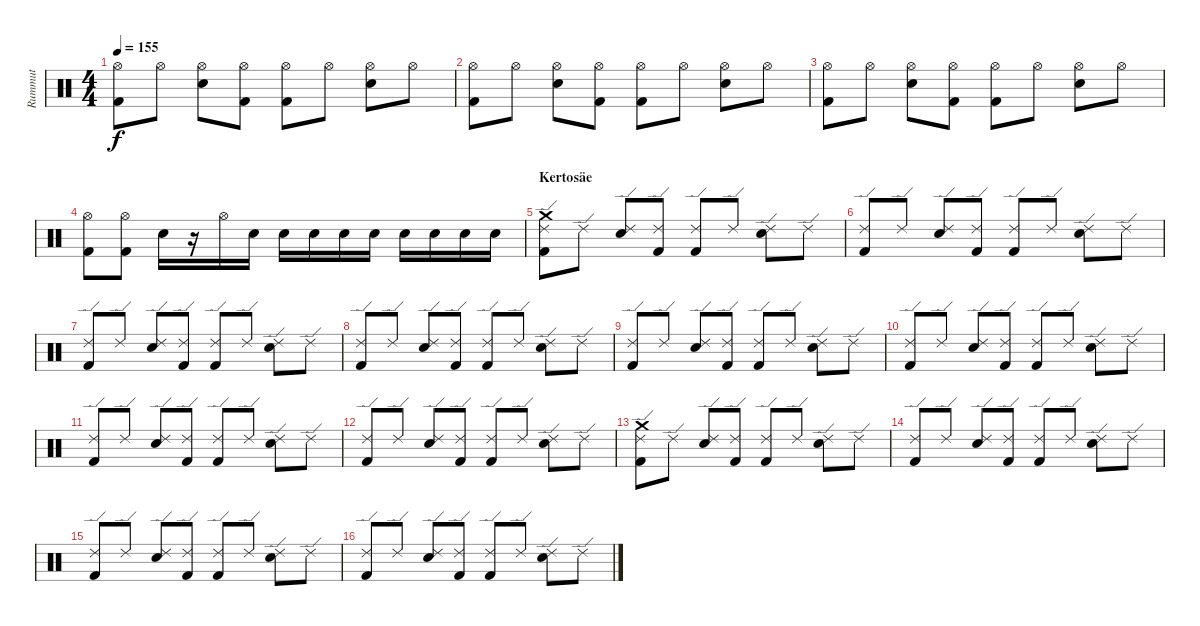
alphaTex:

\track ("Rummut" "Rummut") {instrument percussion}
\staff {score}
\articulation defaults
\ts (4 4)
\tempo 155
\clef neutral
\ks c
("Kick (hit) 2" "Hi-Hat (open)").8{dy f} "Hi-Hat (open)".8 ("Electric Snare (hit)" "Hi-Hat (open)").8 ("Kick (hit) 2" "Hi-Hat (open)").8 ("Kick (hit) 2" "Hi-Hat (open)").8 "Hi-Hat (open)".8 ("Electric Snare (hit)" "Hi-Hat (open)").8 "Hi-Hat (open)".8 |
("Kick (hit) 2" "Hi-Hat (open)").8 "Hi-Hat (open)".8 ("Electric Snare (hit)" "Hi-Hat (open)").8 ("Kick (hit) 2" "Hi-Hat (open)").8 ("Kick (hit) 2" "Hi-Hat (open)").8 "Hi-Hat (open)".8 ("Electric Snare (hit)" "Hi-Hat (open)").8 "Hi-Hat (open)".8 |
("Kick (hit) 2" "Hi-Hat (open)").8 "Hi-Hat (open)".8 ("Electric Snare (hit)" "Hi-Hat (open)").8 ("Kick (hit) 2" "Hi-Hat (open)").8 ("Kick (hit) 2" "Hi-Hat (open)").8 "Hi-Hat (open)".8 ("Electric Snare (hit)" "Hi-Hat (open)").8 "Hi-Hat (open)".8 |
("Kick (hit) 2" "Hi-Hat (open)").8 ("Kick (hit) 2" "Hi-Hat (open)").8 "Electric Snare (hit)".16 r.16 "Hi-Hat (open)".16 "Electric Snare (hit)".16 "Electric Snare (hit)".16 "Electric Snare (hit)".16 "Electric Snare (hit)".16 "Electric Snare (hit)".16 "Electric Snare (hit)".16 "Electric Snare (hit)".16 "Electric Snare (hit)".16 "Electric Snare (hit)".16 |
\section ("" "Kertosäe")
("Kick (hit) 2" "Ride (edge) 2" "Crash medium (hit)").8 "Ride (edge) 2".8 ("Electric Snare (hit)" "Ride (edge) 2").8 ("Kick (hit) 2" "Ride (edge) 2").8 ("Kick (hit) 2" "Ride (edge) 2").8 "Ride (edge) 2".8 ("Electric Snare (hit)" "Ride (edge) 2").8 "Ride (edge) 2".8 |
("Kick (hit) 2" "Ride (edge) 2").8 "Ride (edge) 2".8 ("Electric Snare (hit)" "Ride (edge) 2").8 ("Kick (hit) 2" "Ride (edge) 2").8 ("Kick (hit) 2" "Ride (edge) 2").8 "Ride (edge) 2".8 ("Electric Snare (hit)" "Ride (edge) 2").8 "Ride (edge) 2".8 |
("Kick (hit) 2" "Ride (edge) 2").8 "Ride (edge) 2".8 ("Electric Snare (hit)" "Ride (edge) 2").8 ("Kick (hit) 2" "Ride (edge) 2").8 ("Kick (hit) 2" "Ride (edge) 2").8 "Ride (edge) 2".8 ("Electric Snare (hit)" "Ride (edge) 2").8 "Ride (edge) 2".8 |
("Kick (hit) 2" "Ride (edge) 2").8 "Ride (edge) 2".8 ("Electric Snare (hit)" "Ride (edge) 2").8 ("Kick (hit) 2" "Ride (edge) 2").8 ("Kick (hit) 2" "Ride (edge) 2").8 "Ride (edge) 2".8 ("Electric Snare (hit)" "Ride (edge) 2").8 "Ride (edge) 2".8 |
("Kick (hit) 2" "Ride (edge) 2").8 "Ride (edge) 2".8 ("Electric Snare (hit)" "Ride (edge) 2").8 ("Kick (hit) 2" "Ride (edge) 2").8 ("Kick (hit) 2" "Ride (edge) 2").8 "Ride (edge) 2".8 ("Electric Snare (hit)" "Ride (edge) 2").8 "Ride (edge) 2".8 |
("Kick (hit) 2" "Ride (edge) 2").8 "Ride (edge) 2".8 ("Electric Snare (hit)" "Ride (edge) 2").8 ("Kick (hit) 2" "Ride (edge) 2").8 ("Kick (hit) 2" "Ride (edge) 2").8 "Ride (edge) 2".8 ("Electric Snare (hit)" "Ride (edge) 2").8 "Ride (edge) 2".8 |
("Kick (hit) 2" "Ride (edge) 2").8 "Ride (edge) 2".8 ("Electric Snare (hit)" "Ride (edge) 2").8 ("Kick (hit) 2" "Ride (edge) 2").8 ("Kick (hit) 2" "Ride (edge) 2").8 "Ride (edge) 2".8 ("Electric Snare (hit)" "Ride (edge) 2").8 "Ride (edge) 2".8 |
("Kick (hit) 2" "Ride (edge) 2").8 "Ride (edge) 2".8 ("Electric Snare (hit)" "Ride (edge) 2").8 ("Kick (hit) 2" "Ride (edge) 2").8 ("Kick (hit) 2" "Ride (edge) 2").8 "Ride (edge) 2".8 ("Electric Snare (hit)" "Ride (edge) 2").8 "Ride (edge) 2".8 |
("Kick (hit) 2" "Ride (edge) 2" "Crash medium (hit)").8 "Ride (edge) 2".8 ("Electric Snare (hit)" "Ride (edge) 2").8 ("Kick (hit) 2" "Ride (edge) 2").8 ("Kick (hit) 2" "Ride (edge) 2").8 "Ride (edge) 2".8 ("Electric Snare (hit)" "Ride (edge) 2").8 "Ride (edge) 2".8 |
("Kick (hit) 2" "Ride (edge) 2").8 "Ride (edge) 2".8 ("Electric Snare (hit)" "Ride (edge) 2").8 ("Kick (hit) 2" "Ride (edge) 2").8 ("Kick (hit) 2" "Ride (edge) 2").8 "Ride (edge) 2".8 ("Electric Snare (hit)" "Ride (edge) 2").8 "Ride (edge) 2".8 |
("Kick (hit) 2" "Ride (edge) 2").8 "Ride (edge) 2".8 ("Electric Snare (hit)" "Ride (edge) 2").8 ("Kick (hit) 2" "Ride (edge) 2").8 ("Kick (hit) 2" "Ride (edge) 2").8 "Ride (edge) 2".8 ("Electric Snare (hit)" "Ride (edge) 2").8 "Ride (edge) 2".8 |
("Kick (hit) 2" "Ride (edge) 2").8 "Ride (edge) 2".8 ("Electric Snare (hit)" "Ride (edge) 2").8 ("Kick (hit) 2" "Ride (edge) 2").8 ("Kick (hit) 2" "Ride (edge) 2").8 "Ride (edge) 2".8 ("Electric Snare (hit)" "Ride (edge) 2").8 "Ride (edge) 2".8
